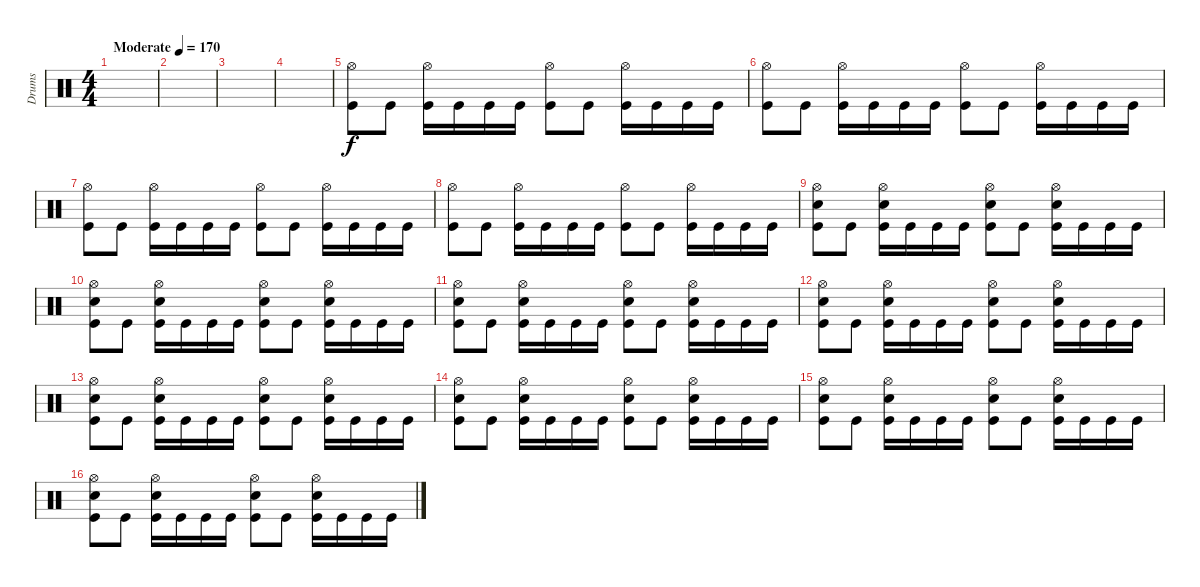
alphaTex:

\track ("Drums" "Drums") {instrument percussion}
\staff {score}
\articulation defaults
\ts (4 4)
\tempo (170 "Moderate")
\clef neutral
\ks c
|
|
|
|
("Hi-Hat (open)" "Kick (hit)").8 "Kick (hit)".8 ("Hi-Hat (open)" "Kick (hit)").16 "Kick (hit)".16 "Kick (hit)".16 "Kick (hit)".16 ("Hi-Hat (open)" "Kick (hit)").8 "Kick (hit)".8 ("Hi-Hat (open)" "Kick (hit)").16 "Kick (hit)".16 "Kick (hit)".16 "Kick (hit)".16 |
("Hi-Hat (open)" "Kick (hit)").8 "Kick (hit)".8 ("Hi-Hat (open)" "Kick (hit)").16 "Kick (hit)".16 "Kick (hit)".16 "Kick (hit)".16 ("Hi-Hat (open)" "Kick (hit)").8 "Kick (hit)".8 ("Hi-Hat (open)" "Kick (hit)").16 "Kick (hit)".16 "Kick (hit)".16 "Kick (hit)".16 |
("Hi-Hat (open)" "Kick (hit)").8 "Kick (hit)".8 ("Hi-Hat (open)" "Kick (hit)").16 "Kick (hit)".16 "Kick (hit)".16 "Kick (hit)".16 ("Hi-Hat (open)" "Kick (hit)").8 "Kick (hit)".8 ("Hi-Hat (open)" "Kick (hit)").16 "Kick (hit)".16 "Kick (hit)".16 "Kick (hit)".16 |
("Hi-Hat (open)" "Kick (hit)").8 "Kick (hit)".8 ("Hi-Hat (open)" "Kick (hit)").16 "Kick (hit)".16 "Kick (hit)".16 "Kick (hit)".16 ("Hi-Hat (open)" "Kick (hit)").8 "Kick (hit)".8 ("Hi-Hat (open)" "Kick (hit)").16 "Kick (hit)".16 "Kick (hit)".16 "Kick (hit)".16 |
("Hi-Hat (open)" "Snare (hit) 2" "Kick (hit)").8 "Kick (hit)".8 ("Hi-Hat (open)" "Snare (hit) 2" "Kick (hit)").16 "Kick (hit)".16 "Kick (hit)".16 "Kick (hit)".16 ("Hi-Hat (open)" "Snare (hit) 2" "Kick (hit)").8 "Kick (hit)".8 ("Hi-Hat (open)" "Snare (hit) 2" "Kick (hit)").16 "Kick (hit)".16 "Kick (hit)".16 "Kick (hit)".16 |
("Hi-Hat (open)" "Snare (hit) 2" "Kick (hit)").8 "Kick (hit)".8 ("Hi-Hat (open)" "Snare (hit) 2" "Kick (hit)").16 "Kick (hit)".16 "Kick (hit)".16 "Kick (hit)".16 ("Hi-Hat (open)" "Snare (hit) 2" "Kick (hit)").8 "Kick (hit)".8 ("Hi-Hat (open)" "Snare (hit) 2" "Kick (hit)").16 "Kick (hit)".16 "Kick (hit)".16 "Kick (hit)".16 |
("Hi-Hat (open)" "Snare (hit) 2" "Kick (hit)").8 "Kick (hit)".8 ("Hi-Hat (open)" "Snare (hit) 2" "Kick (hit)").16 "Kick (hit)".16 "Kick (hit)".16 "Kick (hit)".16 ("Hi-Hat (open)" "Snare (hit) 2" "Kick (hit)").8 "Kick (hit)".8 ("Hi-Hat (open)" "Snare (hit) 2" "Kick (hit)").16 "Kick (hit)".16 "Kick (hit)".16 "Kick (hit)".16 |
("Hi-Hat (open)" "Snare (hit) 2" "Kick (hit)").8 "Kick (hit)".8 ("Hi-Hat (open)" "Snare (hit) 2" "Kick (hit)").16 "Kick (hit)".16 "Kick (hit)".16 "Kick (hit)".16 ("Hi-Hat (open)" "Snare (hit) 2" "Kick (hit)").8 "Kick (hit)".8 ("Hi-Hat (open)" "Snare (hit) 2" "Kick (hit)").16 "Kick (hit)".16 "Kick (hit)".16 "Kick (hit)".16 |
("Hi-Hat (open)" "Snare (hit) 2" "Kick (hit)").8 "Kick (hit)".8 ("Hi-Hat (open)" "Snare (hit) 2" "Kick (hit)").16 "Kick (hit)".16 "Kick (hit)".16 "Kick (hit)".16 ("Hi-Hat (open)" "Snare (hit) 2" "Kick (hit)").8 "Kick (hit)".8 ("Hi-Hat (open)" "Snare (hit) 2" "Kick (hit)").16 "Kick (hit)".16 "Kick (hit)".16 "Kick (hit)".16 |
("Hi-Hat (open)" "Snare (hit) 2" "Kick (hit)").8 "Kick (hit)".8 ("Hi-Hat (open)" "Snare (hit) 2" "Kick (hit)").16 "Kick (hit)".16 "Kick (hit)".16 "Kick (hit)".16 ("Hi-Hat (open)" "Snare (hit) 2" "Kick (hit)").8 "Kick (hit)".8 ("Hi-Hat (open)" "Snare (hit) 2" "Kick (hit)").16 "Kick (hit)".16 "Kick (hit)".16 "Kick (hit)".16 |
("Hi-Hat (open)" "Snare (hit) 2" "Kick (hit)").8 "Kick (hit)".8 ("Hi-Hat (open)" "Snare (hit) 2" "Kick (hit)").16 "Kick (hit)".16 "Kick (hit)".16 "Kick (hit)".16 ("Hi-Hat (open)" "Snare (hit) 2" "Kick (hit)").8 "Kick (hit)".8 ("Hi-Hat (open)" "Snare (hit) 2" "Kick (hit)").16 "Kick (hit)".16 "Kick (hit)".16 "Kick (hit)".16 |
("Hi-Hat (open)" "Snare (hit) 2" "Kick (hit)").8 "Kick (hit)".8 ("Hi-Hat (open)" "Snare (hit) 2" "Kick (hit)").16 "Kick (hit)".16 "Kick (hit)".16 "Kick (hit)".16 ("Hi-Hat (open)" "Snare (hit) 2" "Kick (hit)").8 "Kick (hit)".8 ("Hi-Hat (open)" "Snare (hit) 2" "Kick (hit)").16 "Kick (hit)".16 "Kick (hit)".16 "Kick (hit)".16
